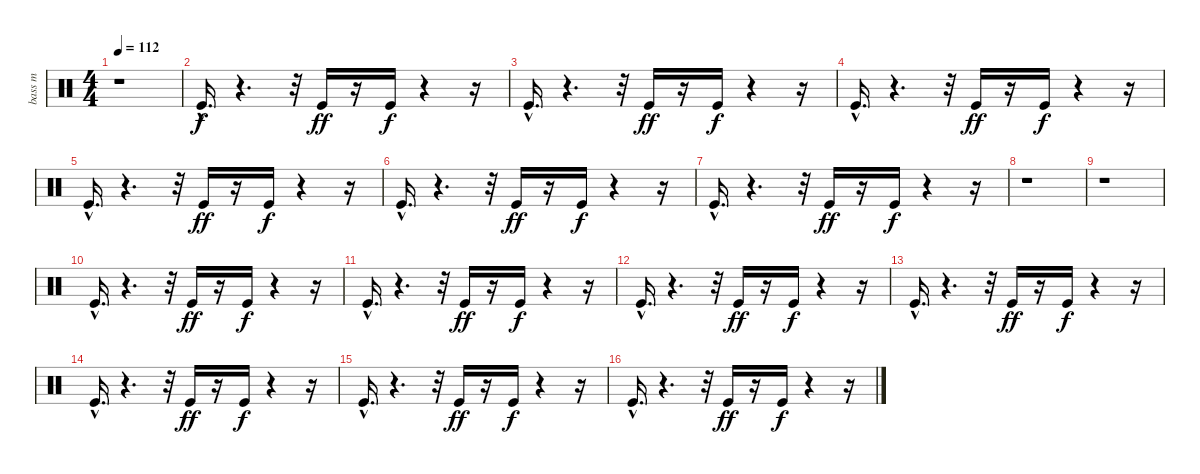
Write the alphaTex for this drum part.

\track ("bass m" "bass m") {instrument percussion}
\staff {score}
\articulation defaults
\ts (4 4)
\tempo 112
\clef neutral
\ks c
r.1{dy f} |
"Kick (hit)"{hac}.16{d} r.4{d} r.32 "Kick (hit)".16{dy ff} r.16 "Kick (hit)".16{dy f} r.4 r.16 |
"Kick (hit)"{hac}.16{d} r.4{d} r.32 "Kick (hit)".16{dy ff} r.16 "Kick (hit)".16{dy f} r.4 r.16 |
"Kick (hit)"{hac}.16{d} r.4{d} r.32 "Kick (hit)".16{dy ff} r.16 "Kick (hit)".16{dy f} r.4 r.16 |
"Kick (hit)"{hac}.16{d} r.4{d} r.32 "Kick (hit)".16{dy ff} r.16 "Kick (hit)".16{dy f} r.4 r.16 |
"Kick (hit)"{hac}.16{d} r.4{d} r.32 "Kick (hit)".16{dy ff} r.16 "Kick (hit)".16{dy f} r.4 r.16 |
"Kick (hit)"{hac}.16{d} r.4{d} r.32 "Kick (hit)".16{dy ff} r.16 "Kick (hit)".16{dy f} r.4 r.16 |
r.1 |
r.1 |
"Kick (hit)"{hac}.16{d} r.4{d} r.32 "Kick (hit)".16{dy ff} r.16 "Kick (hit)".16{dy f} r.4 r.16 |
"Kick (hit)"{hac}.16{d} r.4{d} r.32 "Kick (hit)".16{dy ff} r.16 "Kick (hit)".16{dy f} r.4 r.16 |
"Kick (hit)"{hac}.16{d} r.4{d} r.32 "Kick (hit)".16{dy ff} r.16 "Kick (hit)".16{dy f} r.4 r.16 |
"Kick (hit)"{hac}.16{d} r.4{d} r.32 "Kick (hit)".16{dy ff} r.16 "Kick (hit)".16{dy f} r.4 r.16 |
"Kick (hit)"{hac}.16{d} r.4{d} r.32 "Kick (hit)".16{dy ff} r.16 "Kick (hit)".16{dy f} r.4 r.16 |
"Kick (hit)"{hac}.16{d} r.4{d} r.32 "Kick (hit)".16{dy ff} r.16 "Kick (hit)".16{dy f} r.4 r.16 |
"Kick (hit)"{hac}.16{d} r.4{d} r.32 "Kick (hit)".16{dy ff} r.16 "Kick (hit)".16{dy f} r.4 r.16
